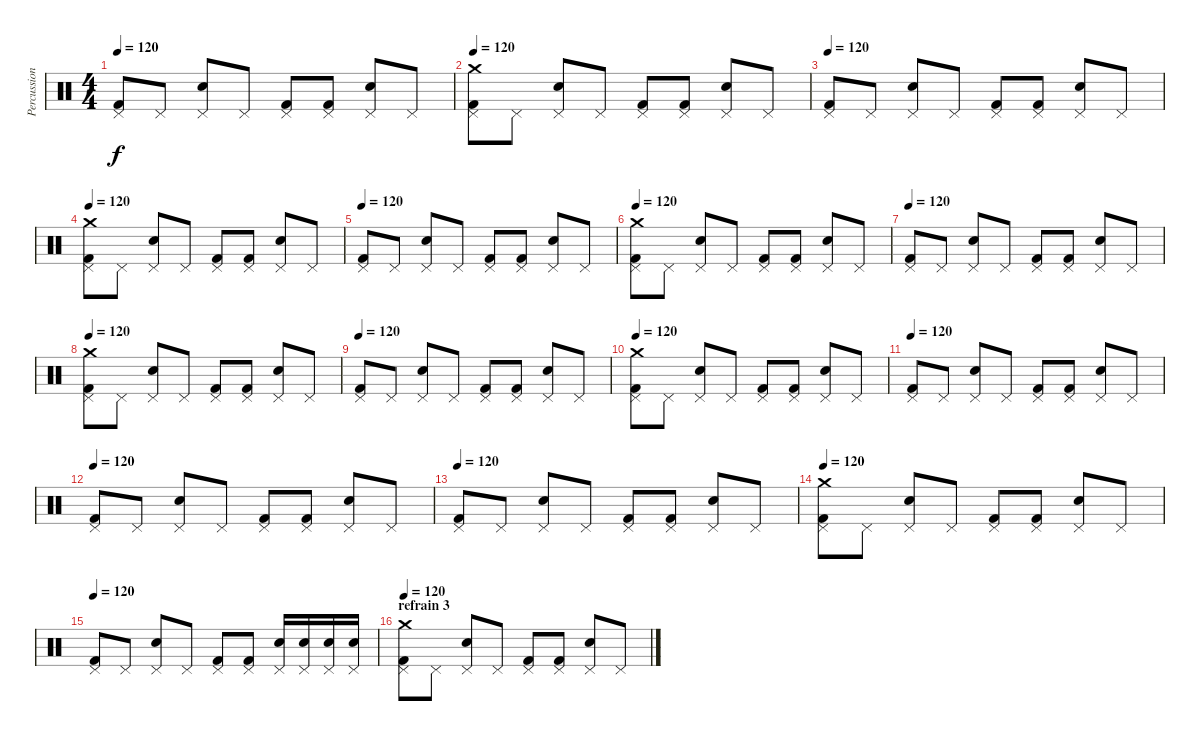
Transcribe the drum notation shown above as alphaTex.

\track ("Percussions" "Percussion") {instrument percussion}
\staff {score}
\articulation defaults
\ts (4 4)
\tempo 120
\clef neutral
\ks c
("Pedal Hi-Hat (hit)" "Kick (hit) 2").8{dy f} "Pedal Hi-Hat (hit)".8 ("Pedal Hi-Hat (hit)" "Electric Snare (hit)").8 "Pedal Hi-Hat (hit)".8 ("Pedal Hi-Hat (hit)" "Kick (hit) 2").8 ("Pedal Hi-Hat (hit)" "Kick (hit) 2").8 ("Pedal Hi-Hat (hit)" "Electric Snare (hit)").8 "Pedal Hi-Hat (hit)".8 |
\tempo 120
("Pedal Hi-Hat (hit)" "Crash medium (hit)" "Kick (hit) 2").8 "Pedal Hi-Hat (hit)".8 ("Pedal Hi-Hat (hit)" "Electric Snare (hit)").8 "Pedal Hi-Hat (hit)".8 ("Pedal Hi-Hat (hit)" "Kick (hit) 2").8 ("Pedal Hi-Hat (hit)" "Kick (hit) 2").8 ("Pedal Hi-Hat (hit)" "Electric Snare (hit)").8 "Pedal Hi-Hat (hit)".8 |
\tempo 120
("Pedal Hi-Hat (hit)" "Kick (hit) 2").8 "Pedal Hi-Hat (hit)".8 ("Pedal Hi-Hat (hit)" "Electric Snare (hit)").8 "Pedal Hi-Hat (hit)".8 ("Pedal Hi-Hat (hit)" "Kick (hit) 2").8 ("Pedal Hi-Hat (hit)" "Kick (hit) 2").8 ("Pedal Hi-Hat (hit)" "Electric Snare (hit)").8 "Pedal Hi-Hat (hit)".8 |
\tempo 120
("Pedal Hi-Hat (hit)" "Crash medium (hit)" "Kick (hit) 2").8 "Pedal Hi-Hat (hit)".8 ("Pedal Hi-Hat (hit)" "Electric Snare (hit)").8 "Pedal Hi-Hat (hit)".8 ("Pedal Hi-Hat (hit)" "Kick (hit) 2").8 ("Pedal Hi-Hat (hit)" "Kick (hit) 2").8 ("Pedal Hi-Hat (hit)" "Electric Snare (hit)").8 "Pedal Hi-Hat (hit)".8 |
\tempo 120
("Pedal Hi-Hat (hit)" "Kick (hit) 2").8 "Pedal Hi-Hat (hit)".8 ("Pedal Hi-Hat (hit)" "Electric Snare (hit)").8 "Pedal Hi-Hat (hit)".8 ("Pedal Hi-Hat (hit)" "Kick (hit) 2").8 ("Pedal Hi-Hat (hit)" "Kick (hit) 2").8 ("Pedal Hi-Hat (hit)" "Electric Snare (hit)").8 "Pedal Hi-Hat (hit)".8 |
\tempo 120
("Pedal Hi-Hat (hit)" "Crash medium (hit)" "Kick (hit) 2").8 "Pedal Hi-Hat (hit)".8 ("Pedal Hi-Hat (hit)" "Electric Snare (hit)").8 "Pedal Hi-Hat (hit)".8 ("Pedal Hi-Hat (hit)" "Kick (hit) 2").8 ("Pedal Hi-Hat (hit)" "Kick (hit) 2").8 ("Pedal Hi-Hat (hit)" "Electric Snare (hit)").8 "Pedal Hi-Hat (hit)".8 |
\tempo 120
("Pedal Hi-Hat (hit)" "Kick (hit) 2").8 "Pedal Hi-Hat (hit)".8 ("Pedal Hi-Hat (hit)" "Electric Snare (hit)").8 "Pedal Hi-Hat (hit)".8 ("Pedal Hi-Hat (hit)" "Kick (hit) 2").8 ("Pedal Hi-Hat (hit)" "Kick (hit) 2").8 ("Pedal Hi-Hat (hit)" "Electric Snare (hit)").8 "Pedal Hi-Hat (hit)".8 |
\tempo 120
("Pedal Hi-Hat (hit)" "Crash medium (hit)" "Kick (hit) 2").8 "Pedal Hi-Hat (hit)".8 ("Pedal Hi-Hat (hit)" "Electric Snare (hit)").8 "Pedal Hi-Hat (hit)".8 ("Pedal Hi-Hat (hit)" "Kick (hit) 2").8 ("Pedal Hi-Hat (hit)" "Kick (hit) 2").8 ("Pedal Hi-Hat (hit)" "Electric Snare (hit)").8 "Pedal Hi-Hat (hit)".8 |
\tempo 120
("Pedal Hi-Hat (hit)" "Kick (hit) 2").8 "Pedal Hi-Hat (hit)".8 ("Pedal Hi-Hat (hit)" "Electric Snare (hit)").8 "Pedal Hi-Hat (hit)".8 ("Pedal Hi-Hat (hit)" "Kick (hit) 2").8 ("Pedal Hi-Hat (hit)" "Kick (hit) 2").8 ("Pedal Hi-Hat (hit)" "Electric Snare (hit)").8 "Pedal Hi-Hat (hit)".8 |
\tempo 120
("Pedal Hi-Hat (hit)" "Crash medium (hit)" "Kick (hit) 2").8 "Pedal Hi-Hat (hit)".8 ("Pedal Hi-Hat (hit)" "Electric Snare (hit)").8 "Pedal Hi-Hat (hit)".8 ("Pedal Hi-Hat (hit)" "Kick (hit) 2").8 ("Pedal Hi-Hat (hit)" "Kick (hit) 2").8 ("Pedal Hi-Hat (hit)" "Electric Snare (hit)").8 "Pedal Hi-Hat (hit)".8 |
\tempo 120
("Pedal Hi-Hat (hit)" "Kick (hit) 2").8 "Pedal Hi-Hat (hit)".8 ("Pedal Hi-Hat (hit)" "Electric Snare (hit)").8 "Pedal Hi-Hat (hit)".8 ("Pedal Hi-Hat (hit)" "Kick (hit) 2").8 ("Pedal Hi-Hat (hit)" "Kick (hit) 2").8 ("Pedal Hi-Hat (hit)" "Electric Snare (hit)").8 "Pedal Hi-Hat (hit)".8 |
\tempo 120
("Pedal Hi-Hat (hit)" "Kick (hit) 2").8 "Pedal Hi-Hat (hit)".8 ("Pedal Hi-Hat (hit)" "Electric Snare (hit)").8 "Pedal Hi-Hat (hit)".8 ("Pedal Hi-Hat (hit)" "Kick (hit) 2").8 ("Pedal Hi-Hat (hit)" "Kick (hit) 2").8 ("Pedal Hi-Hat (hit)" "Electric Snare (hit)").8 "Pedal Hi-Hat (hit)".8 |
\tempo 120
("Pedal Hi-Hat (hit)" "Kick (hit) 2").8 "Pedal Hi-Hat (hit)".8 ("Pedal Hi-Hat (hit)" "Electric Snare (hit)").8 "Pedal Hi-Hat (hit)".8 ("Pedal Hi-Hat (hit)" "Kick (hit) 2").8 ("Pedal Hi-Hat (hit)" "Kick (hit) 2").8 ("Pedal Hi-Hat (hit)" "Electric Snare (hit)").8 "Pedal Hi-Hat (hit)".8 |
\tempo 120
("Pedal Hi-Hat (hit)" "Crash medium (hit)" "Kick (hit) 2").8 "Pedal Hi-Hat (hit)".8 ("Pedal Hi-Hat (hit)" "Electric Snare (hit)").8 "Pedal Hi-Hat (hit)".8 ("Pedal Hi-Hat (hit)" "Kick (hit) 2").8 ("Pedal Hi-Hat (hit)" "Kick (hit) 2").8 ("Pedal Hi-Hat (hit)" "Electric Snare (hit)").8 "Pedal Hi-Hat (hit)".8 |
\tempo 120
("Pedal Hi-Hat (hit)" "Kick (hit) 2").8 "Pedal Hi-Hat (hit)".8 ("Pedal Hi-Hat (hit)" "Electric Snare (hit)").8 "Pedal Hi-Hat (hit)".8 ("Pedal Hi-Hat (hit)" "Kick (hit) 2").8 ("Pedal Hi-Hat (hit)" "Kick (hit) 2").8 ("Pedal Hi-Hat (hit)" "Electric Snare (hit)").16 ("Pedal Hi-Hat (hit)" "Electric Snare (hit)").16 ("Pedal Hi-Hat (hit)" "Electric Snare (hit)").16 ("Pedal Hi-Hat (hit)" "Electric Snare (hit)").16 |
\section ("" "refrain 3")
\tempo 120
("Pedal Hi-Hat (hit)" "Crash medium (hit)" "Kick (hit) 2").8 "Pedal Hi-Hat (hit)".8 ("Pedal Hi-Hat (hit)" "Electric Snare (hit)").8 "Pedal Hi-Hat (hit)".8 ("Pedal Hi-Hat (hit)" "Kick (hit) 2").8 ("Pedal Hi-Hat (hit)" "Kick (hit) 2").8 ("Pedal Hi-Hat (hit)" "Electric Snare (hit)").8 "Pedal Hi-Hat (hit)".8
